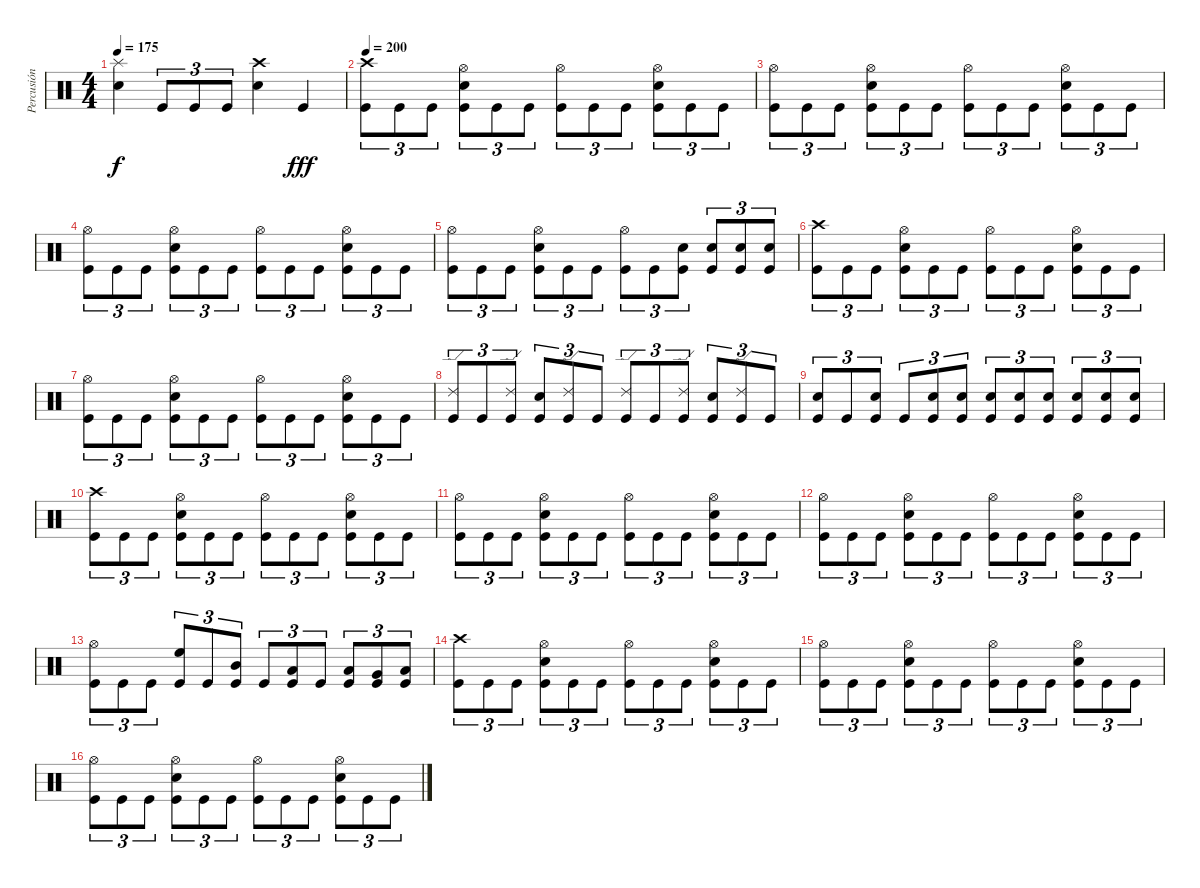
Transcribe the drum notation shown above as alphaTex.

\track ("Percusión" "Percusión") {instrument percussion}
\staff {score}
\articulation defaults
\ts (4 4)
\tempo 175
\clef neutral
\ks c
("Splash (hit)" "Electric Snare (hit)").4{dy f} "Kick (hit)".8{tu (3 2)} "Kick (hit)".8{tu (3 2)} "Kick (hit)".8{tu (3 2)} ("Crash high (hit)" "Electric Snare (hit)").4 "Kick (hit)".4{dy fff} |
\tempo 200
("Crash high (hit)" "Kick (hit)").8{tu (3 2)} "Kick (hit)".8{tu (3 2)} "Kick (hit)".8{tu (3 2)} ("Hi-Hat (open)" "Electric Snare (hit)" "Kick (hit)").8{tu (3 2)} "Kick (hit)".8{tu (3 2)} "Kick (hit)".8{tu (3 2)} ("Hi-Hat (open)" "Kick (hit)").8{tu (3 2)} "Kick (hit)".8{tu (3 2)} "Kick (hit)".8{tu (3 2)} ("Hi-Hat (open)" "Electric Snare (hit)" "Kick (hit)").8{tu (3 2)} "Kick (hit)".8{tu (3 2)} "Kick (hit)".8{tu (3 2)} |
("Hi-Hat (open)" "Kick (hit)").8{tu (3 2)} "Kick (hit)".8{tu (3 2)} "Kick (hit)".8{tu (3 2)} ("Hi-Hat (open)" "Electric Snare (hit)" "Kick (hit)").8{tu (3 2)} "Kick (hit)".8{tu (3 2)} "Kick (hit)".8{tu (3 2)} ("Hi-Hat (open)" "Kick (hit)").8{tu (3 2)} "Kick (hit)".8{tu (3 2)} "Kick (hit)".8{tu (3 2)} ("Hi-Hat (open)" "Electric Snare (hit)" "Kick (hit)").8{tu (3 2)} "Kick (hit)".8{tu (3 2)} "Kick (hit)".8{tu (3 2)} |
("Hi-Hat (open)" "Kick (hit)").8{tu (3 2)} "Kick (hit)".8{tu (3 2)} "Kick (hit)".8{tu (3 2)} ("Hi-Hat (open)" "Electric Snare (hit)" "Kick (hit)").8{tu (3 2)} "Kick (hit)".8{tu (3 2)} "Kick (hit)".8{tu (3 2)} ("Hi-Hat (open)" "Kick (hit)").8{tu (3 2)} "Kick (hit)".8{tu (3 2)} "Kick (hit)".8{tu (3 2)} ("Hi-Hat (open)" "Electric Snare (hit)" "Kick (hit)").8{tu (3 2)} "Kick (hit)".8{tu (3 2)} "Kick (hit)".8{tu (3 2)} |
("Hi-Hat (open)" "Kick (hit)").8{tu (3 2)} "Kick (hit)".8{tu (3 2)} "Kick (hit)".8{tu (3 2)} ("Hi-Hat (open)" "Electric Snare (hit)" "Kick (hit)").8{tu (3 2)} "Kick (hit)".8{tu (3 2)} "Kick (hit)".8{tu (3 2)} ("Hi-Hat (open)" "Kick (hit)").8{tu (3 2)} "Kick (hit)".8{tu (3 2)} ("Electric Snare (hit)" "Kick (hit)").8{tu (3 2)} ("Electric Snare (hit)" "Kick (hit)").8{tu (3 2)} ("Electric Snare (hit)" "Kick (hit)").8{tu (3 2)} ("Electric Snare (hit)" "Kick (hit)").8{tu (3 2)} |
("Crash high (hit)" "Kick (hit)").8{tu (3 2)} "Kick (hit)".8{tu (3 2)} "Kick (hit)".8{tu (3 2)} ("Hi-Hat (open)" "Electric Snare (hit)" "Kick (hit)").8{tu (3 2)} "Kick (hit)".8{tu (3 2)} "Kick (hit)".8{tu (3 2)} ("Hi-Hat (open)" "Kick (hit)").8{tu (3 2)} "Kick (hit)".8{tu (3 2)} "Kick (hit)".8{tu (3 2)} ("Hi-Hat (open)" "Electric Snare (hit)" "Kick (hit)").8{tu (3 2)} "Kick (hit)".8{tu (3 2)} "Kick (hit)".8{tu (3 2)} |
("Hi-Hat (open)" "Kick (hit)").8{tu (3 2)} "Kick (hit)".8{tu (3 2)} "Kick (hit)".8{tu (3 2)} ("Hi-Hat (open)" "Electric Snare (hit)" "Kick (hit)").8{tu (3 2)} "Kick (hit)".8{tu (3 2)} "Kick (hit)".8{tu (3 2)} ("Hi-Hat (open)" "Kick (hit)").8{tu (3 2)} "Kick (hit)".8{tu (3 2)} "Kick (hit)".8{tu (3 2)} ("Hi-Hat (open)" "Electric Snare (hit)" "Kick (hit)").8{tu (3 2)} "Kick (hit)".8{tu (3 2)} "Kick (hit)".8{tu (3 2)} |
("Ride (edge) 2" "Kick (hit)").8{tu (3 2)} "Kick (hit)".8{tu (3 2)} ("Ride (edge) 2" "Kick (hit)").8{tu (3 2)} ("Electric Snare (hit)" "Kick (hit)").8{tu (3 2)} ("Ride (edge) 2" "Kick (hit)").8{tu (3 2)} "Kick (hit)".8{tu (3 2)} ("Ride (edge) 2" "Kick (hit)").8{tu (3 2)} "Kick (hit)".8{tu (3 2)} ("Ride (edge) 2" "Kick (hit)").8{tu (3 2)} ("Electric Snare (hit)" "Kick (hit)").8{tu (3 2)} ("Ride (edge) 2" "Kick (hit)").8{tu (3 2)} "Kick (hit)".8{tu (3 2)} |
("Electric Snare (hit)" "Kick (hit)").8{tu (3 2)} "Kick (hit)".8{tu (3 2)} ("Electric Snare (hit)" "Kick (hit)").8{tu (3 2)} "Kick (hit)".8{tu (3 2)} ("Electric Snare (hit)" "Kick (hit)").8{tu (3 2)} ("Electric Snare (hit)" "Kick (hit)").8{tu (3 2)} ("Electric Snare (hit)" "Kick (hit)").8{tu (3 2)} ("Electric Snare (hit)" "Kick (hit)").8{tu (3 2)} ("Electric Snare (hit)" "Kick (hit)").8{tu (3 2)} ("Electric Snare (hit)" "Kick (hit)").8{tu (3 2)} ("Electric Snare (hit)" "Kick (hit)").8{tu (3 2)} ("Electric Snare (hit)" "Kick (hit)").8{tu (3 2)} |
("Crash high (hit)" "Kick (hit)").8{tu (3 2)} "Kick (hit)".8{tu (3 2)} "Kick (hit)".8{tu (3 2)} ("Hi-Hat (open)" "Electric Snare (hit)" "Kick (hit)").8{tu (3 2)} "Kick (hit)".8{tu (3 2)} "Kick (hit)".8{tu (3 2)} ("Hi-Hat (open)" "Kick (hit)").8{tu (3 2)} "Kick (hit)".8{tu (3 2)} "Kick (hit)".8{tu (3 2)} ("Hi-Hat (open)" "Electric Snare (hit)" "Kick (hit)").8{tu (3 2)} "Kick (hit)".8{tu (3 2)} "Kick (hit)".8{tu (3 2)} |
("Hi-Hat (open)" "Kick (hit)").8{tu (3 2)} "Kick (hit)".8{tu (3 2)} "Kick (hit)".8{tu (3 2)} ("Hi-Hat (open)" "Electric Snare (hit)" "Kick (hit)").8{tu (3 2)} "Kick (hit)".8{tu (3 2)} "Kick (hit)".8{tu (3 2)} ("Hi-Hat (open)" "Kick (hit)").8{tu (3 2)} "Kick (hit)".8{tu (3 2)} "Kick (hit)".8{tu (3 2)} ("Hi-Hat (open)" "Electric Snare (hit)" "Kick (hit)").8{tu (3 2)} "Kick (hit)".8{tu (3 2)} "Kick (hit)".8{tu (3 2)} |
("Hi-Hat (open)" "Kick (hit)").8{tu (3 2)} "Kick (hit)".8{tu (3 2)} "Kick (hit)".8{tu (3 2)} ("Hi-Hat (open)" "Electric Snare (hit)" "Kick (hit)").8{tu (3 2)} "Kick (hit)".8{tu (3 2)} "Kick (hit)".8{tu (3 2)} ("Hi-Hat (open)" "Kick (hit)").8{tu (3 2)} "Kick (hit)".8{tu (3 2)} "Kick (hit)".8{tu (3 2)} ("Hi-Hat (open)" "Electric Snare (hit)" "Kick (hit)").8{tu (3 2)} "Kick (hit)".8{tu (3 2)} "Kick (hit)".8{tu (3 2)} |
("Hi-Hat (open)" "Kick (hit)").8{tu (3 2)} "Kick (hit)".8{tu (3 2)} "Kick (hit)".8{tu (3 2)} ("High Floor Tom (hit)" "Kick (hit)").8{tu (3 2)} "Kick (hit)".8{tu (3 2)} ("Mid Tom (hit)" "Kick (hit)").8{tu (3 2)} "Kick (hit)".8{tu (3 2)} ("Low Tom (hit)" "Kick (hit)").8{tu (3 2)} "Kick (hit)".8{tu (3 2)} ("Low Tom (hit)" "Kick (hit)").8{tu (3 2)} ("Very Low Tom (hit)" "Kick (hit)").8{tu (3 2)} ("Low Floor Tom (hit)" "Kick (hit)").8{tu (3 2)} |
("Crash high (hit)" "Kick (hit)").8{tu (3 2)} "Kick (hit)".8{tu (3 2)} "Kick (hit)".8{tu (3 2)} ("Hi-Hat (open)" "Electric Snare (hit)" "Kick (hit)").8{tu (3 2)} "Kick (hit)".8{tu (3 2)} "Kick (hit)".8{tu (3 2)} ("Hi-Hat (open)" "Kick (hit)").8{tu (3 2)} "Kick (hit)".8{tu (3 2)} "Kick (hit)".8{tu (3 2)} ("Hi-Hat (open)" "Electric Snare (hit)" "Kick (hit)").8{tu (3 2)} "Kick (hit)".8{tu (3 2)} "Kick (hit)".8{tu (3 2)} |
("Hi-Hat (open)" "Kick (hit)").8{tu (3 2)} "Kick (hit)".8{tu (3 2)} "Kick (hit)".8{tu (3 2)} ("Hi-Hat (open)" "Electric Snare (hit)" "Kick (hit)").8{tu (3 2)} "Kick (hit)".8{tu (3 2)} "Kick (hit)".8{tu (3 2)} ("Hi-Hat (open)" "Kick (hit)").8{tu (3 2)} "Kick (hit)".8{tu (3 2)} "Kick (hit)".8{tu (3 2)} ("Hi-Hat (open)" "Electric Snare (hit)" "Kick (hit)").8{tu (3 2)} "Kick (hit)".8{tu (3 2)} "Kick (hit)".8{tu (3 2)} |
("Hi-Hat (open)" "Kick (hit)").8{tu (3 2)} "Kick (hit)".8{tu (3 2)} "Kick (hit)".8{tu (3 2)} ("Hi-Hat (open)" "Electric Snare (hit)" "Kick (hit)").8{tu (3 2)} "Kick (hit)".8{tu (3 2)} "Kick (hit)".8{tu (3 2)} ("Hi-Hat (open)" "Kick (hit)").8{tu (3 2)} "Kick (hit)".8{tu (3 2)} "Kick (hit)".8{tu (3 2)} ("Hi-Hat (open)" "Electric Snare (hit)" "Kick (hit)").8{tu (3 2)} "Kick (hit)".8{tu (3 2)} "Kick (hit)".8{tu (3 2)}
